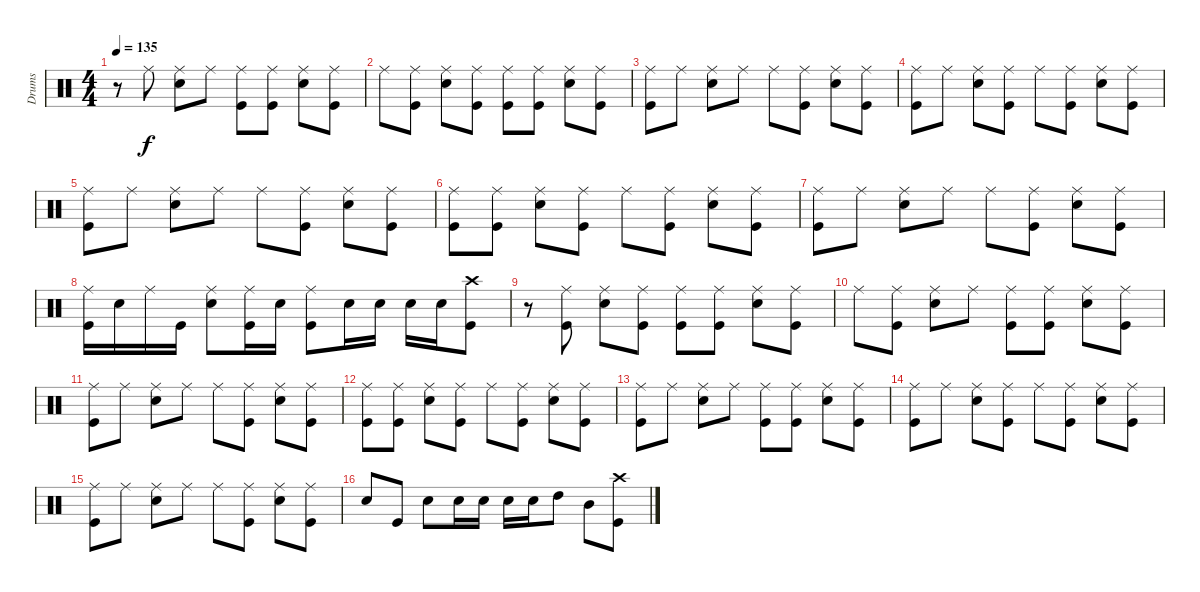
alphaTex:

\track ("Drums" "Drums") {instrument percussion}
\staff {score}
\articulation defaults
\ts (4 4)
\tempo 135
\clef neutral
\ks c
r.8{dy f} "Ride (middle)".8 ("Electric Snare (hit)" "Ride (middle)").8 "Ride (middle)".8 ("Kick (hit)" "Ride (middle)").8 ("Kick (hit)" "Ride (middle)").8 ("Electric Snare (hit)" "Ride (middle)").8 ("Kick (hit)" "Ride (middle)").8 |
"Ride (middle)".8 ("Kick (hit)" "Ride (middle)").8 ("Electric Snare (hit)" "Ride (middle)").8 ("Kick (hit)" "Ride (middle)").8 ("Kick (hit)" "Ride (middle)").8 ("Kick (hit)" "Ride (middle)").8 ("Electric Snare (hit)" "Ride (middle)").8 ("Kick (hit)" "Ride (middle)").8 |
("Kick (hit)" "Ride (middle)").8 "Ride (middle)".8 ("Electric Snare (hit)" "Ride (middle)").8 "Ride (middle)".8 "Ride (middle)".8 ("Kick (hit)" "Ride (middle)").8 ("Electric Snare (hit)" "Ride (middle)").8 ("Kick (hit)" "Ride (middle)").8 |
("Kick (hit)" "Ride (middle)").8 "Ride (middle)".8 ("Electric Snare (hit)" "Ride (middle)").8 ("Kick (hit)" "Ride (middle)").8 "Ride (middle)".8 ("Kick (hit)" "Ride (middle)").8 ("Electric Snare (hit)" "Ride (middle)").8 ("Kick (hit)" "Ride (middle)").8 |
("Kick (hit)" "Ride (middle)").8 "Ride (middle)".8 ("Electric Snare (hit)" "Ride (middle)").8 "Ride (middle)".8 "Ride (middle)".8 ("Kick (hit)" "Ride (middle)").8 ("Electric Snare (hit)" "Ride (middle)").8 ("Kick (hit)" "Ride (middle)").8 |
("Kick (hit)" "Ride (middle)").8 ("Kick (hit)" "Ride (middle)").8 ("Electric Snare (hit)" "Ride (middle)").8 ("Kick (hit)" "Ride (middle)").8 "Ride (middle)".8 ("Kick (hit)" "Ride (middle)").8 ("Electric Snare (hit)" "Ride (middle)").8 ("Kick (hit)" "Ride (middle)").8 |
("Kick (hit)" "Ride (middle)").8 "Ride (middle)".8 ("Electric Snare (hit)" "Ride (middle)").8 "Ride (middle)".8 "Ride (middle)".8 ("Kick (hit)" "Ride (middle)").8 ("Electric Snare (hit)" "Ride (middle)").8 ("Kick (hit)" "Ride (middle)").8 |
("Kick (hit)" "Ride (middle)").16 "Electric Snare (hit)".16 "Ride (middle)".16 "Kick (hit)".16 ("Electric Snare (hit)" "Ride (middle)").8 ("Kick (hit)" "Ride (middle)").16 "Electric Snare (hit)".16 ("Kick (hit)" "Ride (middle)").8 "Electric Snare (hit)".16 "Electric Snare (hit)".16 "Electric Snare (hit)".16 "Electric Snare (hit)".16 ("Kick (hit)" "Crash high (hit)").8 |
r.8 ("Kick (hit)" "Ride (middle)").8 ("Electric Snare (hit)" "Ride (middle)").8 ("Kick (hit)" "Ride (middle)").8 ("Kick (hit)" "Ride (middle)").8 ("Kick (hit)" "Ride (middle)").8 ("Electric Snare (hit)" "Ride (middle)").8 ("Kick (hit)" "Ride (middle)").8 |
"Ride (middle)".8 ("Kick (hit)" "Ride (middle)").8 ("Electric Snare (hit)" "Ride (middle)").8 "Ride (middle)".8 ("Kick (hit)" "Ride (middle)").8 ("Kick (hit)" "Ride (middle)").8 ("Electric Snare (hit)" "Ride (middle)").8 ("Kick (hit)" "Ride (middle)").8 |
("Kick (hit)" "Ride (middle)").8 "Ride (middle)".8 ("Electric Snare (hit)" "Ride (middle)").8 "Ride (middle)".8 "Ride (middle)".8 ("Kick (hit)" "Ride (middle)").8 ("Electric Snare (hit)" "Ride (middle)").8 ("Kick (hit)" "Ride (middle)").8 |
("Kick (hit)" "Ride (middle)").8 ("Kick (hit)" "Ride (middle)").8 ("Electric Snare (hit)" "Ride (middle)").8 ("Kick (hit)" "Ride (middle)").8 "Ride (middle)".8 ("Kick (hit)" "Ride (middle)").8 ("Electric Snare (hit)" "Ride (middle)").8 ("Kick (hit)" "Ride (middle)").8 |
("Kick (hit)" "Ride (middle)").8 "Ride (middle)".8 ("Electric Snare (hit)" "Ride (middle)").8 "Ride (middle)".8 ("Kick (hit)" "Ride (middle)").8 ("Kick (hit)" "Ride (middle)").8 ("Electric Snare (hit)" "Ride (middle)").8 ("Kick (hit)" "Ride (middle)").8 |
("Kick (hit)" "Ride (middle)").8 "Ride (middle)".8 ("Electric Snare (hit)" "Ride (middle)").8 ("Kick (hit)" "Ride (middle)").8 "Ride (middle)".8 ("Kick (hit)" "Ride (middle)").8 ("Electric Snare (hit)" "Ride (middle)").8 ("Kick (hit)" "Ride (middle)").8 |
("Kick (hit)" "Ride (middle)").8 "Ride (middle)".8 ("Electric Snare (hit)" "Ride (middle)").8 "Ride (middle)".8 "Ride (middle)".8 ("Kick (hit)" "Ride (middle)").8 ("Electric Snare (hit)" "Ride (middle)").8 ("Kick (hit)" "Ride (middle)").8 |
"Electric Snare (hit)".8 "Kick (hit)".8 "Electric Snare (hit)".8 "Electric Snare (hit)".16 "Electric Snare (hit)".16 "Electric Snare (hit)".16 "Electric Snare (hit)".16 "High Tom (hit)".8 "Mid Tom (hit)".8 ("Kick (hit)" "Crash high (hit)").8
